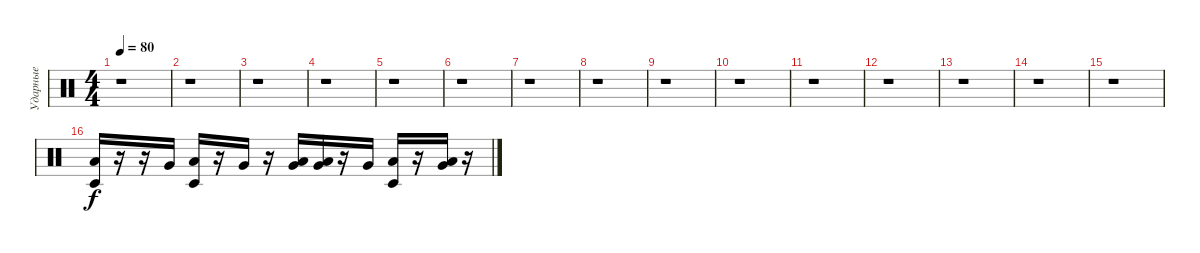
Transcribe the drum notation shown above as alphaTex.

\track ("Ударные" "Ударные") {instrument percussion}
\staff {score}
\articulation defaults
\ts (4 4)
\tempo 80
\clef neutral
\ks c
r.1{dy f} |
r.1 |
r.1 |
r.1 |
r.1 |
r.1 |
r.1 |
r.1 |
r.1 |
r.1 |
r.1 |
r.1 |
r.1 |
r.1 |
r.1 |
("Timbale low (hit)" "Low Floor Tom (hit)").16 r.16 r.16 "Very Low Tom (hit)".16 ("Timbale low (hit)" "Low Floor Tom (hit)").16 r.16 "Very Low Tom (hit)".16 r.16 ("Low Floor Tom (hit)" "Very Low Tom (hit)").16 ("Low Floor Tom (hit)" "Very Low Tom (hit)").16 r.16 "Very Low Tom (hit)".16 ("Timbale low (hit)" "Low Floor Tom (hit)").16 r.16 ("Low Floor Tom (hit)" "Very Low Tom (hit)").16 r.16
